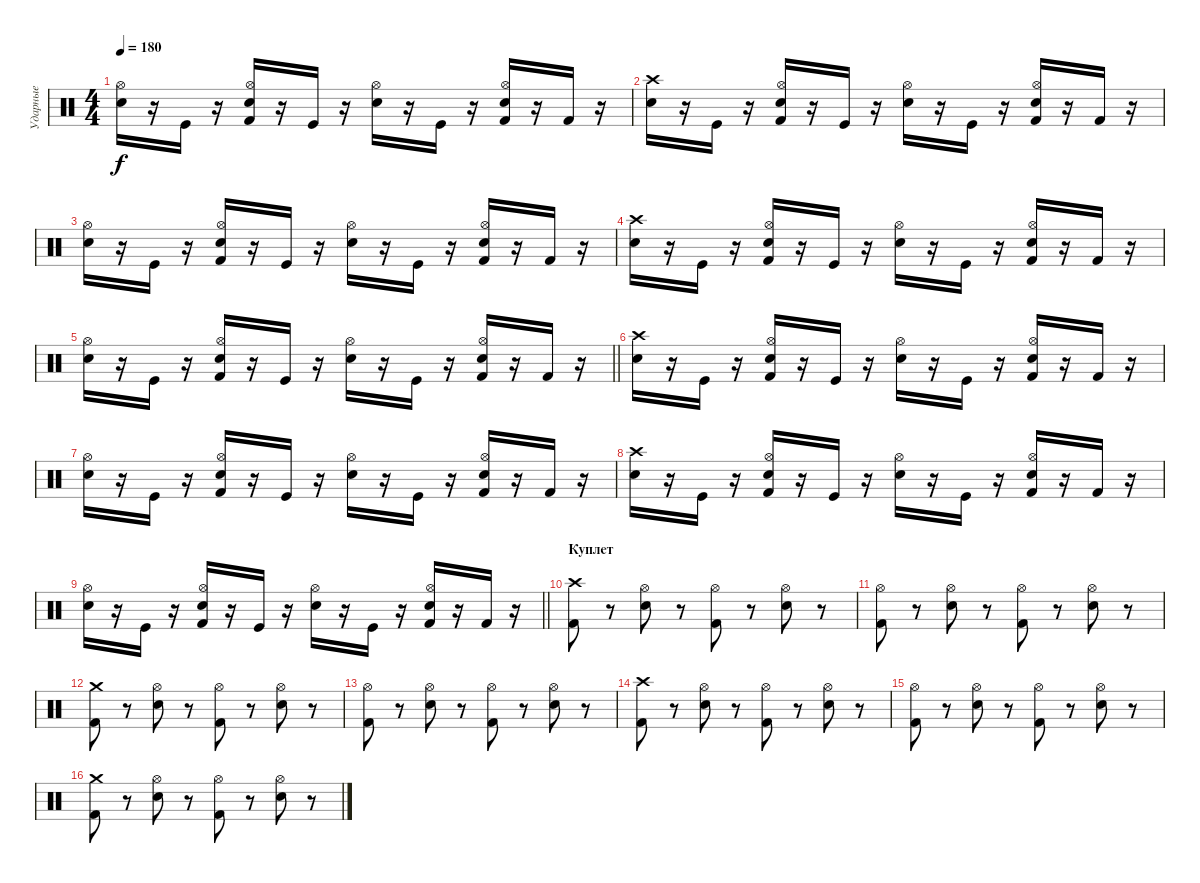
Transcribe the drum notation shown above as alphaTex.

\track ("Ударные" "Ударные") {instrument percussion}
\staff {score}
\articulation defaults
\ts (4 4)
\tempo 180
\clef neutral
\ks c
("Electric Snare (hit)" "Hi-Hat (open)").16{dy f} r.16 "Kick (hit)".16 r.16 ("Kick (hit) 2" "Hi-Hat (open)" "Electric Snare (hit)").16 r.16 "Kick (hit)".16 r.16 ("Electric Snare (hit)" "Hi-Hat (open)").16 r.16 "Kick (hit)".16 r.16 ("Kick (hit) 2" "Hi-Hat (open)" "Electric Snare (hit)").16 r.16 "Kick (hit) 2".16 r.16 |
("Electric Snare (hit)" "Crash high (hit)").16 r.16 "Kick (hit)".16 r.16 ("Kick (hit) 2" "Hi-Hat (open)" "Electric Snare (hit)").16 r.16 "Kick (hit)".16 r.16 ("Electric Snare (hit)" "Hi-Hat (open)").16 r.16 "Kick (hit)".16 r.16 ("Kick (hit) 2" "Hi-Hat (open)" "Electric Snare (hit)").16 r.16 "Kick (hit) 2".16 r.16 |
("Electric Snare (hit)" "Hi-Hat (open)").16 r.16 "Kick (hit)".16 r.16 ("Kick (hit) 2" "Hi-Hat (open)" "Electric Snare (hit)").16 r.16 "Kick (hit)".16 r.16 ("Electric Snare (hit)" "Hi-Hat (open)").16 r.16 "Kick (hit)".16 r.16 ("Kick (hit) 2" "Hi-Hat (open)" "Electric Snare (hit)").16 r.16 "Kick (hit) 2".16 r.16 |
("Electric Snare (hit)" "Crash high (hit)").16 r.16 "Kick (hit)".16 r.16 ("Kick (hit) 2" "Hi-Hat (open)" "Electric Snare (hit)").16 r.16 "Kick (hit)".16 r.16 ("Electric Snare (hit)" "Hi-Hat (open)").16 r.16 "Kick (hit)".16 r.16 ("Kick (hit) 2" "Hi-Hat (open)" "Electric Snare (hit)").16 r.16 "Kick (hit) 2".16 r.16 |
\barLineRight lightlight
("Electric Snare (hit)" "Hi-Hat (open)").16 r.16 "Kick (hit)".16 r.16 ("Kick (hit) 2" "Hi-Hat (open)" "Electric Snare (hit)").16 r.16 "Kick (hit)".16 r.16 ("Electric Snare (hit)" "Hi-Hat (open)").16 r.16 "Kick (hit)".16 r.16 ("Kick (hit) 2" "Hi-Hat (open)" "Electric Snare (hit)").16 r.16 "Kick (hit) 2".16 r.16 |
("Electric Snare (hit)" "Crash high (hit)").16 r.16 "Kick (hit)".16 r.16 ("Kick (hit) 2" "Hi-Hat (open)" "Electric Snare (hit)").16 r.16 "Kick (hit)".16 r.16 ("Electric Snare (hit)" "Hi-Hat (open)").16 r.16 "Kick (hit)".16 r.16 ("Kick (hit) 2" "Hi-Hat (open)" "Electric Snare (hit)").16 r.16 "Kick (hit) 2".16 r.16 |
("Electric Snare (hit)" "Hi-Hat (open)").16 r.16 "Kick (hit)".16 r.16 ("Kick (hit) 2" "Hi-Hat (open)" "Electric Snare (hit)").16 r.16 "Kick (hit)".16 r.16 ("Electric Snare (hit)" "Hi-Hat (open)").16 r.16 "Kick (hit)".16 r.16 ("Kick (hit) 2" "Hi-Hat (open)" "Electric Snare (hit)").16 r.16 "Kick (hit) 2".16 r.16 |
("Electric Snare (hit)" "Crash high (hit)").16 r.16 "Kick (hit)".16 r.16 ("Kick (hit) 2" "Hi-Hat (open)" "Electric Snare (hit)").16 r.16 "Kick (hit)".16 r.16 ("Electric Snare (hit)" "Hi-Hat (open)").16 r.16 "Kick (hit)".16 r.16 ("Kick (hit) 2" "Hi-Hat (open)" "Electric Snare (hit)").16 r.16 "Kick (hit) 2".16 r.16 |
\barLineRight lightlight
("Electric Snare (hit)" "Hi-Hat (open)").16 r.16 "Kick (hit)".16 r.16 ("Kick (hit) 2" "Hi-Hat (open)" "Electric Snare (hit)").16 r.16 "Kick (hit)".16 r.16 ("Electric Snare (hit)" "Hi-Hat (open)").16 r.16 "Kick (hit)".16 r.16 ("Kick (hit) 2" "Hi-Hat (open)" "Electric Snare (hit)").16 r.16 "Kick (hit) 2".16 r.16 |
\section ("" "Куплет")
("Crash high (hit)" "Kick (hit) 2").8 r.8 ("Hi-Hat (open)" "Electric Snare (hit)").8 r.8 ("Hi-Hat (open)" "Kick (hit) 2").8 r.8 ("Hi-Hat (open)" "Electric Snare (hit)").8 r.8 |
("Hi-Hat (open)" "Kick (hit) 2").8 r.8 ("Hi-Hat (open)" "Electric Snare (hit)").8 r.8 ("Hi-Hat (open)" "Kick (hit) 2").8 r.8 ("Hi-Hat (open)" "Electric Snare (hit)").8 r.8 |
("Crash medium (hit)" "Kick (hit) 2").8 r.8 ("Hi-Hat (open)" "Electric Snare (hit)").8 r.8 ("Hi-Hat (open)" "Kick (hit) 2").8 r.8 ("Hi-Hat (open)" "Electric Snare (hit)").8 r.8 |
("Hi-Hat (open)" "Kick (hit) 2").8 r.8 ("Hi-Hat (open)" "Electric Snare (hit)").8 r.8 ("Hi-Hat (open)" "Kick (hit) 2").8 r.8 ("Hi-Hat (open)" "Electric Snare (hit)").8 r.8 |
("Crash high (hit)" "Kick (hit) 2").8 r.8 ("Hi-Hat (open)" "Electric Snare (hit)").8 r.8 ("Hi-Hat (open)" "Kick (hit) 2").8 r.8 ("Hi-Hat (open)" "Electric Snare (hit)").8 r.8 |
("Hi-Hat (open)" "Kick (hit) 2").8 r.8 ("Hi-Hat (open)" "Electric Snare (hit)").8 r.8 ("Hi-Hat (open)" "Kick (hit) 2").8 r.8 ("Hi-Hat (open)" "Electric Snare (hit)").8 r.8 |
("Crash medium (hit)" "Kick (hit) 2").8 r.8 ("Hi-Hat (open)" "Electric Snare (hit)").8 r.8 ("Hi-Hat (open)" "Kick (hit) 2").8 r.8 ("Hi-Hat (open)" "Electric Snare (hit)").8 r.8
